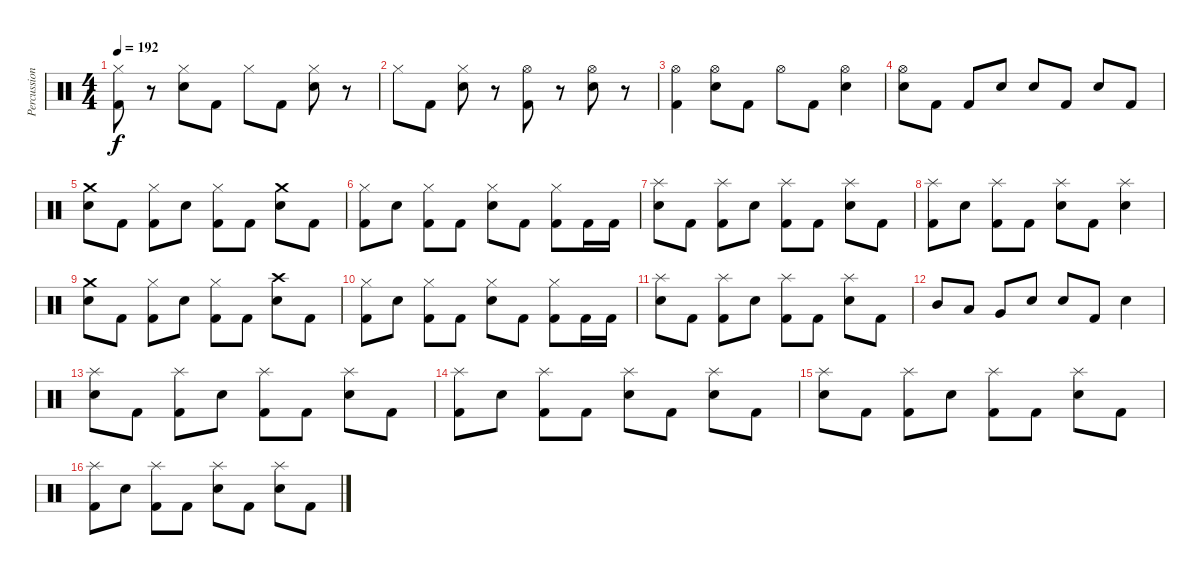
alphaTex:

\track ("Percussion" "Percussion") {instrument percussion}
\staff {score}
\articulation defaults
\ts (4 4)
\tempo 192
\clef neutral
\ks c
("Hi-Hat (closed)" "Kick (hit) 2").8{dy f} r.8 ("Hi-Hat (closed)" "Electric Snare (hit)").8 "Kick (hit) 2".8 "Hi-Hat (closed)".8 "Kick (hit) 2".8 ("Hi-Hat (closed)" "Electric Snare (hit)").8 r.8 |
"Hi-Hat (closed)".8 "Kick (hit) 2".8 ("Hi-Hat (closed)" "Electric Snare (hit)").8 r.8 ("Hi-Hat (open)" "Kick (hit) 2").8 r.8 ("Hi-Hat (open)" "Electric Snare (hit)").8 r.8 |
("Hi-Hat (open)" "Kick (hit) 2").4{volume 13} ("Hi-Hat (open)" "Electric Snare (hit)").8 "Kick (hit) 2".8 "Hi-Hat (open)".8 "Kick (hit) 2".8 ("Hi-Hat (open)" "Electric Snare (hit)").4 |
("Hi-Hat (open)" "Electric Snare (hit)").8 "Kick (hit) 2".8 "Kick (hit) 2".8 "Electric Snare (hit)".8 "Electric Snare (hit)".8 "Kick (hit) 2".8 "Electric Snare (hit)".8 "Kick (hit) 2".8 |
("Crash medium (hit)" "Electric Snare (hit)").8{volume 13} "Kick (hit) 2".8 ("Hi-Hat (closed)" "Kick (hit) 2").8 "Electric Snare (hit)".8 ("Hi-Hat (closed)" "Kick (hit) 2").8 "Kick (hit) 2".8 ("Crash medium (hit)" "Electric Snare (hit)").8 "Kick (hit) 2".8 |
("Hi-Hat (closed)" "Kick (hit) 2").8 "Electric Snare (hit)".8 ("Hi-Hat (closed)" "Kick (hit) 2").8 "Kick (hit) 2".8 ("Hi-Hat (closed)" "Electric Snare (hit)").8 "Kick (hit) 2".8 ("Hi-Hat (closed)" "Kick (hit) 2").8 "Kick (hit) 2".16 "Kick (hit) 2".16 |
("Splash (hit)" "Electric Snare (hit)").8 "Kick (hit) 2".8 ("Splash (hit)" "Kick (hit) 2").8 "Electric Snare (hit)".8 ("Splash (hit)" "Kick (hit) 2").8 "Kick (hit) 2".8 ("Splash (hit)" "Electric Snare (hit)").8 "Kick (hit) 2".8 |
("Splash (hit)" "Kick (hit) 2").8 "Electric Snare (hit)".8 ("Splash (hit)" "Kick (hit) 2").8 "Kick (hit) 2".8 ("Splash (hit)" "Electric Snare (hit)").8 "Kick (hit) 2".8 ("Splash (hit)" "Electric Snare (hit)").4 |
("Crash medium (hit)" "Electric Snare (hit)").8 "Kick (hit) 2".8 ("Hi-Hat (closed)" "Kick (hit) 2").8 "Electric Snare (hit)".8 ("Hi-Hat (closed)" "Kick (hit) 2").8 "Kick (hit) 2".8 ("Crash high (hit)" "Electric Snare (hit)").8 "Kick (hit) 2".8 |
("Hi-Hat (closed)" "Kick (hit) 2").8 "Electric Snare (hit)".8 ("Hi-Hat (closed)" "Kick (hit) 2").8 "Kick (hit) 2".8 ("Hi-Hat (closed)" "Electric Snare (hit)").8 "Kick (hit) 2".8 ("Hi-Hat (closed)" "Kick (hit) 2").8 "Kick (hit) 2".16 "Kick (hit) 2".16 |
("Splash (hit)" "Electric Snare (hit)").8 "Kick (hit) 2".8 ("Splash (hit)" "Kick (hit) 2").8 "Electric Snare (hit)".8 ("Splash (hit)" "Kick (hit) 2").8 "Kick (hit) 2".8 ("Splash (hit)" "Electric Snare (hit)").8 "Kick (hit) 2".8 |
"Mid Tom (hit)".8 "Low Tom (hit)".8 "Very Low Tom (hit)".8 "Electric Snare (hit)".8 "Electric Snare (hit)".8 "Kick (hit) 2".8 "Electric Snare (hit)".4 |
("Splash (hit)" "Electric Snare (hit)").8 "Kick (hit) 2".8 ("Splash (hit)" "Kick (hit) 2").8 "Electric Snare (hit)".8 ("Splash (hit)" "Kick (hit) 2").8 "Kick (hit) 2".8 ("Splash (hit)" "Electric Snare (hit)").8 "Kick (hit) 2".8 |
("Splash (hit)" "Kick (hit) 2").8 "Electric Snare (hit)".8 ("Splash (hit)" "Kick (hit) 2").8 "Kick (hit) 2".8 ("Splash (hit)" "Electric Snare (hit)").8 "Kick (hit) 2".8 ("Splash (hit)" "Electric Snare (hit)").8 "Kick (hit) 2".8 |
("Splash (hit)" "Electric Snare (hit)").8 "Kick (hit) 2".8 ("Splash (hit)" "Kick (hit) 2").8 "Electric Snare (hit)".8 ("Splash (hit)" "Kick (hit) 2").8 "Kick (hit) 2".8 ("Splash (hit)" "Electric Snare (hit)").8 "Kick (hit) 2".8 |
("Splash (hit)" "Kick (hit) 2").8 "Electric Snare (hit)".8 ("Splash (hit)" "Kick (hit) 2").8 "Kick (hit) 2".8 ("Splash (hit)" "Electric Snare (hit)").8 "Kick (hit) 2".8 ("Splash (hit)" "Electric Snare (hit)").8 "Kick (hit) 2".8
